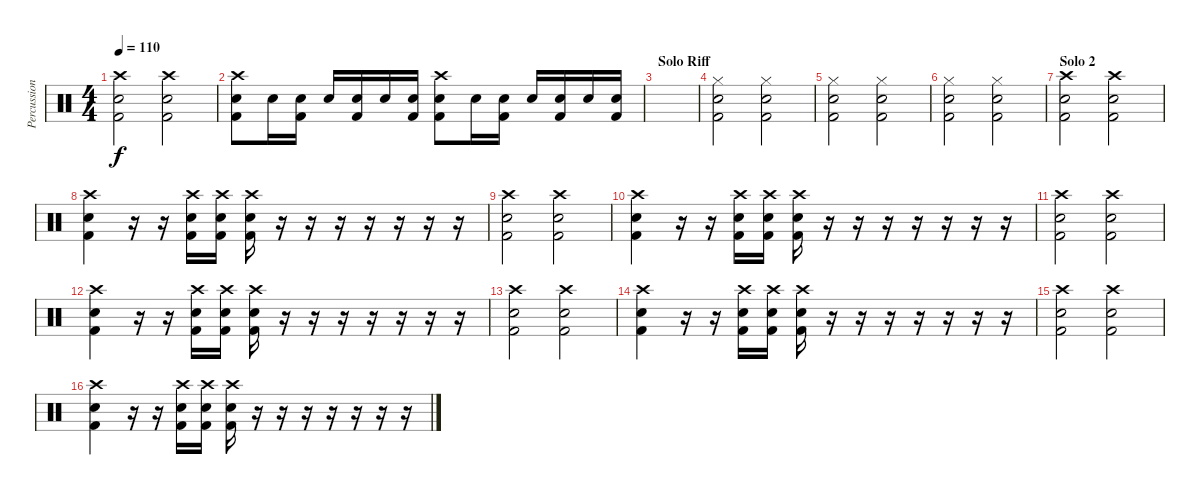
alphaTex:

\track ("Percussion" "Percussion") {instrument percussion}
\staff {score}
\articulation defaults
\ts (4 4)
\tempo 110
\clef neutral
\ks c
("Kick (hit) 2" "Snare (hit) 2" "Crash high (hit)").2{dy f} ("Snare (hit) 2" "Kick (hit) 2" "Crash high (hit)").2 |
("Kick (hit) 2" "Snare (hit) 2" "Crash high (hit)").8 "Snare (hit) 2".16 ("Kick (hit) 2" "Snare (hit) 2").16 "Snare (hit) 2".16 ("Kick (hit) 2" "Snare (hit) 2").16 "Snare (hit) 2".16 ("Kick (hit) 2" "Snare (hit) 2").16 ("Kick (hit) 2" "Snare (hit) 2" "Crash high (hit)").8 "Snare (hit) 2".16 ("Kick (hit) 2" "Snare (hit) 2").16 "Snare (hit) 2".16 ("Kick (hit) 2" "Snare (hit) 2").16 "Snare (hit) 2".16 ("Kick (hit) 2" "Snare (hit) 2").16 |
\section ("" "Solo Riff")
|
("Hi-Hat (closed)" "Kick (hit) 2" "Snare (hit) 2").2 ("Hi-Hat (closed)" "Kick (hit) 2" "Snare (hit) 2").2 |
("Hi-Hat (closed)" "Kick (hit) 2" "Snare (hit) 2").2 ("Hi-Hat (closed)" "Kick (hit) 2" "Snare (hit) 2").2 |
("Hi-Hat (closed)" "Kick (hit) 2" "Snare (hit) 2").2 ("Hi-Hat (closed)" "Kick (hit) 2" "Snare (hit) 2").2 |
\section ("" "Solo 2")
("Crash high (hit)" "Snare (hit) 2" "Kick (hit) 2").2 ("Kick (hit) 2" "Snare (hit) 2" "Crash high (hit)").2 |
("Crash high (hit)" "Kick (hit) 2" "Snare (hit) 2").4 r.16 r.16 ("Kick (hit) 2" "Snare (hit) 2" "Crash high (hit)").16 ("Crash high (hit)" "Kick (hit) 2" "Snare (hit) 2").16 ("Crash high (hit)" "Kick (hit) 2" "Snare (hit) 2").16 r.16 r.16 r.16 r.16 r.16 r.16 r.16 |
("Crash high (hit)" "Snare (hit) 2" "Kick (hit) 2").2 ("Kick (hit) 2" "Snare (hit) 2" "Crash high (hit)").2 |
("Crash high (hit)" "Kick (hit) 2" "Snare (hit) 2").4 r.16 r.16 ("Kick (hit) 2" "Snare (hit) 2" "Crash high (hit)").16 ("Crash high (hit)" "Kick (hit) 2" "Snare (hit) 2").16 ("Crash high (hit)" "Kick (hit) 2" "Snare (hit) 2").16 r.16 r.16 r.16 r.16 r.16 r.16 r.16 |
("Crash high (hit)" "Snare (hit) 2" "Kick (hit) 2").2 ("Kick (hit) 2" "Snare (hit) 2" "Crash high (hit)").2 |
("Crash high (hit)" "Kick (hit) 2" "Snare (hit) 2").4 r.16 r.16 ("Kick (hit) 2" "Snare (hit) 2" "Crash high (hit)").16 ("Crash high (hit)" "Kick (hit) 2" "Snare (hit) 2").16 ("Crash high (hit)" "Kick (hit) 2" "Snare (hit) 2").16 r.16 r.16 r.16 r.16 r.16 r.16 r.16 |
("Crash high (hit)" "Snare (hit) 2" "Kick (hit) 2").2 ("Kick (hit) 2" "Snare (hit) 2" "Crash high (hit)").2 |
("Crash high (hit)" "Kick (hit) 2" "Snare (hit) 2").4 r.16 r.16 ("Kick (hit) 2" "Snare (hit) 2" "Crash high (hit)").16 ("Crash high (hit)" "Kick (hit) 2" "Snare (hit) 2").16 ("Crash high (hit)" "Kick (hit) 2" "Snare (hit) 2").16 r.16 r.16 r.16 r.16 r.16 r.16 r.16 |
("Crash high (hit)" "Snare (hit) 2" "Kick (hit) 2").2 ("Kick (hit) 2" "Snare (hit) 2" "Crash high (hit)").2 |
("Crash high (hit)" "Kick (hit) 2" "Snare (hit) 2").4 r.16 r.16 ("Kick (hit) 2" "Snare (hit) 2" "Crash high (hit)").16 ("Crash high (hit)" "Kick (hit) 2" "Snare (hit) 2").16 ("Crash high (hit)" "Kick (hit) 2" "Snare (hit) 2").16 r.16 r.16 r.16 r.16 r.16 r.16 r.16
